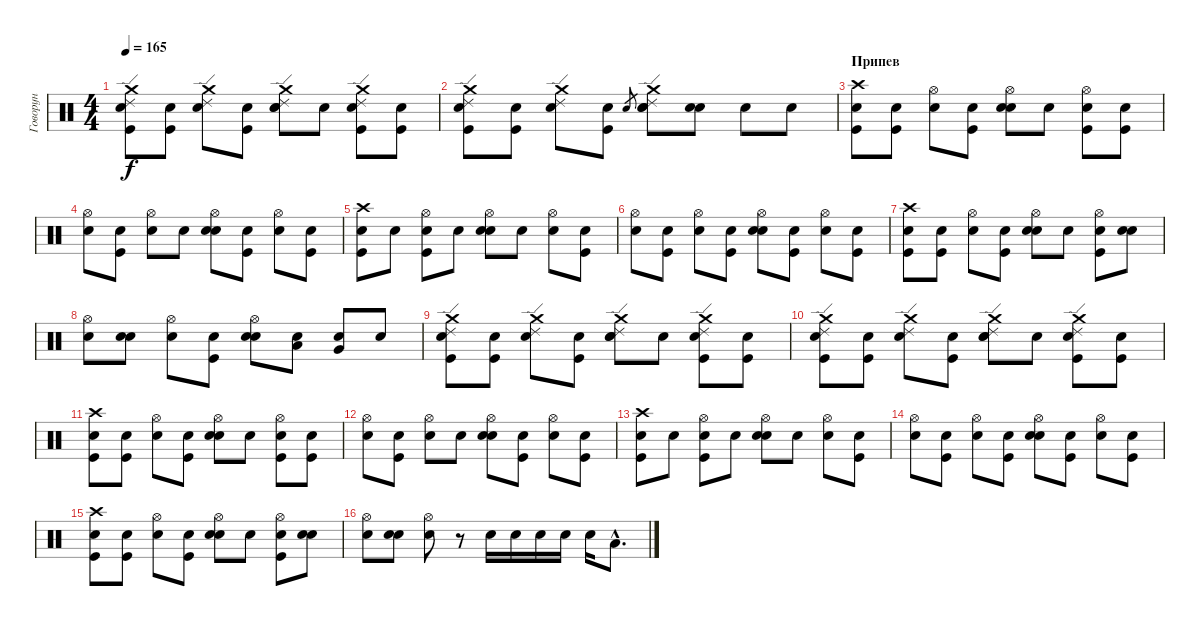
\track ("Говорун" "Говорун") {instrument percussion}
\staff {score}
\articulation defaults
\ts (4 4)
\tempo 165
\clef neutral
\ks c
("Crash medium (hit)" "Ride (edge) 2" "Kick (hit)" "Snare (hit)"{x}).8{dy f} ("Kick (hit)" "Snare (hit)"{x}).8 ("Crash medium (hit)" "Ride (edge) 2" "Snare (hit)"{x}).8 ("Kick (hit)" "Snare (hit)"{x}).8 ("Crash medium (hit)" "Ride (edge) 2" "Snare (hit) 2" "Snare (hit)"{x}).8 "Snare (hit)"{x}.8 ("Crash medium (hit)" "Ride (edge) 2" "Kick (hit)" "Snare (hit)"{x}).8 ("Kick (hit)" "Snare (hit)"{x}).8 |
("Crash medium (hit)" "Ride (edge) 2" "Kick (hit)" "Snare (hit)"{x}).8 ("Kick (hit)" "Snare (hit)"{x}).8 ("Crash medium (hit)" "Ride (edge) 2" "Snare (hit)"{x}).8 ("Kick (hit)" "Snare (hit)"{x}).8 "Snare (hit) 2".8{gr} ("Crash medium (hit)" "Ride (edge) 2" "Snare (hit) 2" "Snare (hit)"{x}).8 ("Snare (hit) 2" "Snare (hit)"{x}).8 "Snare (hit)"{x}.8 "Snare (hit)"{x}.8 |
\section ("" "Припев")
("Crash high (hit)" "Kick (hit)" "Snare (hit)"{x}).8 ("Kick (hit)" "Snare (hit)"{x}).8 ("Hi-Hat (open)" "Snare (hit)"{x}).8 ("Kick (hit)" "Snare (hit)"{x}).8 ("Hi-Hat (open)" "Snare (hit) 2" "Snare (hit)"{x}).8 "Snare (hit)"{x}.8 ("Hi-Hat (open)" "Kick (hit)" "Snare (hit)"{x}).8 ("Kick (hit)" "Snare (hit)"{x}).8 |
("Hi-Hat (open)" "Snare (hit)"{x}).8 ("Kick (hit)" "Snare (hit)"{x}).8 ("Hi-Hat (open)" "Snare (hit)"{x}).8 "Snare (hit)"{x}.8 ("Hi-Hat (open)" "Snare (hit) 2" "Snare (hit)"{x}).8 ("Kick (hit)" "Snare (hit)"{x}).8 ("Hi-Hat (open)" "Snare (hit)"{x}).8 ("Kick (hit)" "Snare (hit)"{x}).8 |
("Crash high (hit)" "Kick (hit)" "Snare (hit)"{x}).8 "Snare (hit)"{x}.8 ("Hi-Hat (open)" "Kick (hit)" "Snare (hit)"{x}).8 "Snare (hit)"{x}.8 ("Hi-Hat (open)" "Snare (hit) 2" "Snare (hit)"{x}).8 "Snare (hit)"{x}.8 ("Hi-Hat (open)" "Snare (hit)"{x}).8 ("Kick (hit)" "Snare (hit)"{x}).8 |
("Hi-Hat (open)" "Snare (hit)"{x}).8 ("Kick (hit)" "Snare (hit)"{x}).8 ("Hi-Hat (open)" "Snare (hit)"{x}).8 ("Kick (hit)" "Snare (hit)"{x}).8 ("Hi-Hat (open)" "Snare (hit) 2" "Snare (hit)"{x}).8 ("Kick (hit)" "Snare (hit)"{x}).8 ("Hi-Hat (open)" "Snare (hit)"{x}).8 ("Kick (hit)" "Snare (hit)"{x}).8 |
("Crash high (hit)" "Kick (hit)" "Snare (hit)"{x}).8 ("Kick (hit)" "Snare (hit)"{x}).8 ("Hi-Hat (open)" "Snare (hit)"{x}).8 ("Kick (hit)" "Snare (hit)"{x}).8 ("Hi-Hat (open)" "Snare (hit) 2" "Snare (hit)"{x}).8 "Snare (hit)"{x}.8 ("Hi-Hat (open)" "Kick (hit)" "Snare (hit)"{x}).8 ("Snare (hit) 2" "Snare (hit)"{x}).8 |
("Hi-Hat (open)" "Snare (hit)"{x}).8 ("Snare (hit) 2" "Snare (hit)"{x}).8 ("Hi-Hat (open)" "Snare (hit)"{x}).8 ("Kick (hit)" "Snare (hit)"{x}).8 ("Hi-Hat (open)" "Snare (hit) 2" "Snare (hit)"{x}).8 ("Low Tom (hit)" "Snare (hit)"{x}).8 ("Very Low Tom (hit)" "Snare (hit)"{x}).8 "Snare (hit)"{x}.8 |
("Crash medium (hit)" "Ride (edge) 2" "Kick (hit)" "Snare (hit)"{x}).8 ("Kick (hit)" "Snare (hit)"{x}).8 ("Crash medium (hit)" "Ride (edge) 2" "Snare (hit)"{x}).8 ("Kick (hit)" "Snare (hit)"{x}).8 ("Crash medium (hit)" "Ride (edge) 2" "Snare (hit) 2" "Snare (hit)"{x}).8 "Snare (hit)"{x}.8 ("Crash medium (hit)" "Ride (edge) 2" "Kick (hit)" "Snare (hit)"{x}).8 ("Kick (hit)" "Snare (hit)"{x}).8 |
("Crash medium (hit)" "Ride (edge) 2" "Kick (hit)" "Snare (hit)"{x}).8 ("Kick (hit)" "Snare (hit)"{x}).8 ("Crash medium (hit)" "Ride (edge) 2" "Snare (hit)"{x}).8 ("Kick (hit)" "Snare (hit)"{x}).8 ("Crash medium (hit)" "Ride (edge) 2" "Snare (hit) 2" "Snare (hit)"{x}).8 "Snare (hit)"{x}.8 ("Crash medium (hit)" "Ride (edge) 2" "Kick (hit)" "Snare (hit)"{x}).8 ("Kick (hit)" "Snare (hit)"{x}).8 |
("Crash high (hit)" "Kick (hit)" "Snare (hit)"{x}).8 ("Kick (hit)" "Snare (hit)"{x}).8 ("Hi-Hat (open)" "Snare (hit)"{x}).8 ("Kick (hit)" "Snare (hit)"{x}).8 ("Hi-Hat (open)" "Snare (hit) 2" "Snare (hit)"{x}).8 "Snare (hit)"{x}.8 ("Hi-Hat (open)" "Kick (hit)" "Snare (hit)"{x}).8 ("Kick (hit)" "Snare (hit)"{x}).8 |
("Hi-Hat (open)" "Snare (hit)"{x}).8 ("Kick (hit)" "Snare (hit)"{x}).8 ("Hi-Hat (open)" "Snare (hit)"{x}).8 "Snare (hit)"{x}.8 ("Hi-Hat (open)" "Snare (hit) 2" "Snare (hit)"{x}).8 ("Kick (hit)" "Snare (hit)"{x}).8 ("Hi-Hat (open)" "Snare (hit)"{x}).8 ("Kick (hit)" "Snare (hit)"{x}).8 |
("Crash high (hit)" "Kick (hit)" "Snare (hit)"{x}).8 "Snare (hit)"{x}.8 ("Hi-Hat (open)" "Kick (hit)" "Snare (hit)"{x}).8 "Snare (hit)"{x}.8 ("Hi-Hat (open)" "Snare (hit) 2" "Snare (hit)"{x}).8 "Snare (hit)"{x}.8 ("Hi-Hat (open)" "Snare (hit)"{x}).8 ("Kick (hit)" "Snare (hit)"{x}).8 |
("Hi-Hat (open)" "Snare (hit)"{x}).8 ("Kick (hit)" "Snare (hit)"{x}).8 ("Hi-Hat (open)" "Snare (hit)"{x}).8 ("Kick (hit)" "Snare (hit)"{x}).8 ("Hi-Hat (open)" "Snare (hit) 2" "Snare (hit)"{x}).8 ("Kick (hit)" "Snare (hit)"{x}).8 ("Hi-Hat (open)" "Snare (hit)"{x}).8 ("Kick (hit)" "Snare (hit)"{x}).8 |
("Crash high (hit)" "Kick (hit)" "Snare (hit)"{x}).8 ("Kick (hit)" "Snare (hit)"{x}).8 ("Hi-Hat (open)" "Snare (hit)"{x}).8 ("Kick (hit)" "Snare (hit)"{x}).8 ("Hi-Hat (open)" "Snare (hit) 2" "Snare (hit)"{x}).8 "Snare (hit)"{x}.8 ("Hi-Hat (open)" "Kick (hit)" "Snare (hit)"{x}).8 ("Snare (hit) 2" "Snare (hit)"{x}).8 |
("Hi-Hat (open)" "Snare (hit)"{x}).8 ("Snare (hit) 2" "Snare (hit)"{x}).8 ("Hi-Hat (open)" "Snare (hit)"{x}).8 r.8 "Snare (hit) 2".16 "Snare (hit) 2".16 "Snare (hit) 2".16 "Snare (hit) 2".16 "Snare (hit) 2".16 "Low Tom (hit)"{hac}.8{d}
